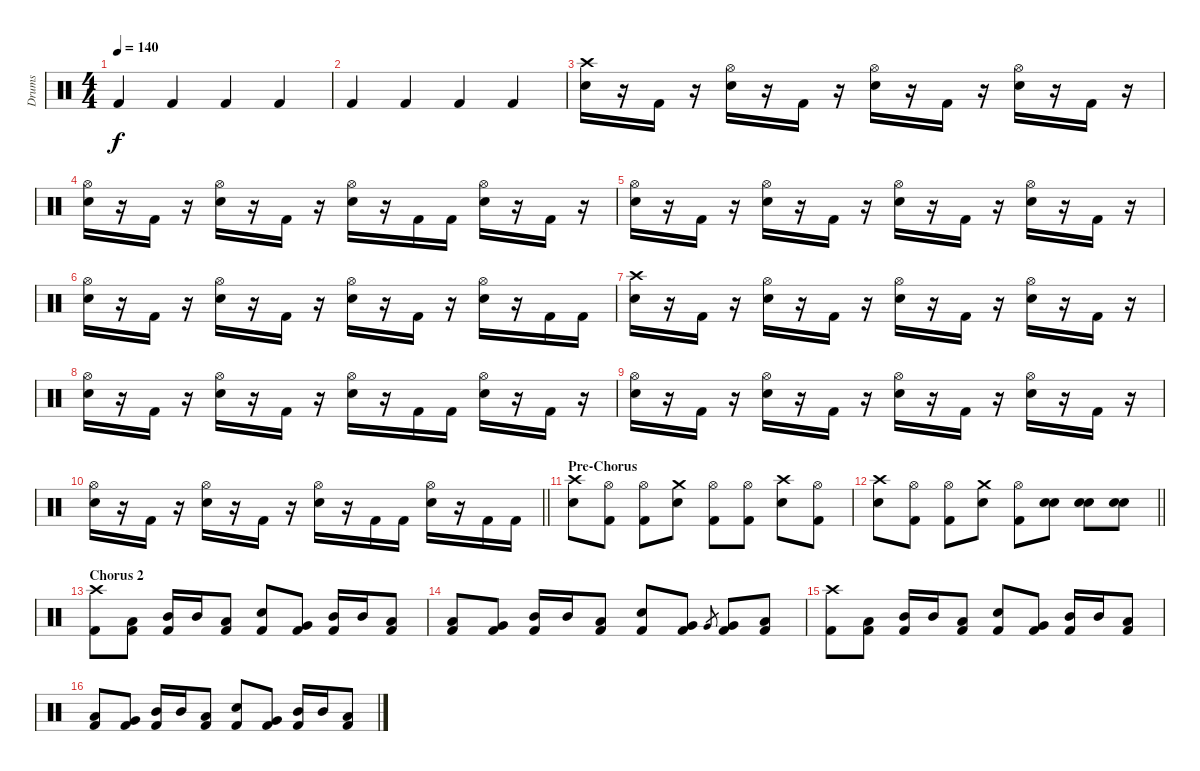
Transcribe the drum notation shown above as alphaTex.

\track ("Drums" "Drums") {instrument percussion}
\staff {score}
\articulation defaults
\ts (4 4)
\tempo 140
\clef neutral
\ks c "Kick (hit) 2".4{dy f} "Kick (hit) 2".4 "Kick (hit) 2".4 "Kick (hit) 2".4
|
"Kick (hit) 2".4 "Kick (hit) 2".4 "Kick (hit) 2".4 "Kick (hit) 2".4 |
("Crash high (hit)" "Snare (hit) 2").16 r.16 "Kick (hit) 2".16 r.16 ("Hi-Hat (open)" "Snare (hit) 2").16 r.16 "Kick (hit) 2".16 r.16 ("Hi-Hat (open)" "Snare (hit) 2").16 r.16 "Kick (hit) 2".16 r.16 ("Hi-Hat (open)" "Snare (hit) 2").16 r.16 "Kick (hit) 2".16 r.16 |
("Hi-Hat (open)" "Snare (hit) 2").16 r.16 "Kick (hit) 2".16 r.16 ("Hi-Hat (open)" "Snare (hit) 2").16 r.16 "Kick (hit) 2".16 r.16 ("Hi-Hat (open)" "Snare (hit) 2").16 r.16 "Kick (hit) 2".16 "Kick (hit) 2".16 ("Hi-Hat (open)" "Snare (hit) 2").16 r.16 "Kick (hit) 2".16 r.16 |
("Hi-Hat (open)" "Snare (hit) 2").16 r.16 "Kick (hit) 2".16 r.16 ("Hi-Hat (open)" "Snare (hit) 2").16 r.16 "Kick (hit) 2".16 r.16 ("Hi-Hat (open)" "Snare (hit) 2").16 r.16 "Kick (hit) 2".16 r.16 ("Hi-Hat (open)" "Snare (hit) 2").16 r.16 "Kick (hit) 2".16 r.16 |
("Hi-Hat (open)" "Snare (hit) 2").16 r.16 "Kick (hit) 2".16 r.16 ("Hi-Hat (open)" "Snare (hit) 2").16 r.16 "Kick (hit) 2".16 r.16 ("Hi-Hat (open)" "Snare (hit) 2").16 r.16 "Kick (hit) 2".16 r.16 ("Hi-Hat (open)" "Snare (hit) 2").16 r.16 "Kick (hit) 2".16 "Kick (hit) 2".16 |
("Crash high (hit)" "Snare (hit) 2").16 r.16 "Kick (hit) 2".16 r.16 ("Hi-Hat (open)" "Snare (hit) 2").16 r.16 "Kick (hit) 2".16 r.16 ("Hi-Hat (open)" "Snare (hit) 2").16 r.16 "Kick (hit) 2".16 r.16 ("Hi-Hat (open)" "Snare (hit) 2").16 r.16 "Kick (hit) 2".16 r.16 |
("Hi-Hat (open)" "Snare (hit) 2").16 r.16 "Kick (hit) 2".16 r.16 ("Hi-Hat (open)" "Snare (hit) 2").16 r.16 "Kick (hit) 2".16 r.16 ("Hi-Hat (open)" "Snare (hit) 2").16 r.16 "Kick (hit) 2".16 "Kick (hit) 2".16 ("Hi-Hat (open)" "Snare (hit) 2").16 r.16 "Kick (hit) 2".16 r.16 |
("Hi-Hat (open)" "Snare (hit) 2").16 r.16 "Kick (hit) 2".16 r.16 ("Hi-Hat (open)" "Snare (hit) 2").16 r.16 "Kick (hit) 2".16 r.16 ("Hi-Hat (open)" "Snare (hit) 2").16 r.16 "Kick (hit) 2".16 r.16 ("Hi-Hat (open)" "Snare (hit) 2").16 r.16 "Kick (hit) 2".16 r.16 |
\barLineRight lightlight
("Hi-Hat (open)" "Snare (hit) 2").16 r.16 "Kick (hit) 2".16 r.16 ("Hi-Hat (open)" "Snare (hit) 2").16 r.16 "Kick (hit) 2".16 r.16 ("Hi-Hat (open)" "Snare (hit) 2").16 r.16 "Kick (hit) 2".16 "Kick (hit) 2".16 ("Hi-Hat (open)" "Snare (hit) 2").16 r.16 "Kick (hit) 2".16 "Kick (hit) 2".16 |
\section ("" "Pre-Chorus")
("Crash high (hit)" "Snare (hit) 2").8 ("Hi-Hat (open)" "Kick (hit) 2").8 ("Hi-Hat (open)" "Kick (hit) 2").8 ("Crash medium (hit)" "Snare (hit) 2").8 ("Hi-Hat (open)" "Kick (hit) 2").8 ("Hi-Hat (open)" "Kick (hit) 2").8 ("Crash high (hit)" "Snare (hit) 2").8 ("Hi-Hat (open)" "Kick (hit) 2").8 |
\barLineRight lightlight
("Crash high (hit)" "Snare (hit) 2").8 ("Hi-Hat (open)" "Kick (hit) 2").8 ("Hi-Hat (open)" "Kick (hit) 2").8 ("Crash medium (hit)" "Snare (hit) 2").8 ("Hi-Hat (open)" "Kick (hit) 2").8 ("Snare (hit) 2" "Snare (hit) 2").8 ("Snare (hit) 2" "Snare (hit) 2").8 ("Snare (hit) 2" "Snare (hit) 2").8 |
\section ("" "Chorus 2")
("Crash high (hit)" "Kick (hit) 2").8 ("Low Floor Tom (hit)" "Kick (hit) 2").8 ("Mid Tom (hit)" "Kick (hit) 2").16 "Mid Tom (hit)".16 ("Low Tom (hit)" "Kick (hit) 2").8 ("Snare (hit) 2" "Kick (hit) 2").8 ("Very Low Tom (hit)" "Kick (hit) 2").8 ("Mid Tom (hit)" "Kick (hit) 2").16 "Mid Tom (hit)".16 ("Low Tom (hit)" "Kick (hit) 2").8 |
("Low Floor Tom (hit)" "Kick (hit) 2").8 ("Very Low Tom (hit)" "Kick (hit) 2").8 ("Mid Tom (hit)" "Kick (hit) 2").16 "Mid Tom (hit)".16 ("Low Tom (hit)" "Kick (hit) 2").8 ("Snare (hit) 2" "Kick (hit) 2").8 ("Very Low Tom (hit)" "Kick (hit) 2").8 "Very Low Tom (hit)".8{gr} ("Very Low Tom (hit)" "Kick (hit) 2").8 ("Low Tom (hit)" "Kick (hit) 2").8 |
("Crash high (hit)" "Kick (hit) 2").8 ("Low Floor Tom (hit)" "Kick (hit) 2").8 ("Mid Tom (hit)" "Kick (hit) 2").16 "Mid Tom (hit)".16 ("Low Tom (hit)" "Kick (hit) 2").8 ("Snare (hit) 2" "Kick (hit) 2").8 ("Very Low Tom (hit)" "Kick (hit) 2").8 ("Mid Tom (hit)" "Kick (hit) 2").16 "Mid Tom (hit)".16 ("Low Tom (hit)" "Kick (hit) 2").8 |
("Low Floor Tom (hit)" "Kick (hit) 2").8 ("Very Low Tom (hit)" "Kick (hit) 2").8 ("Mid Tom (hit)" "Kick (hit) 2").16 "Mid Tom (hit)".16 ("Low Tom (hit)" "Kick (hit) 2").8 ("Snare (hit) 2" "Kick (hit) 2").8 ("Very Low Tom (hit)" "Kick (hit) 2").8 ("Mid Tom (hit)" "Kick (hit) 2").16 "Mid Tom (hit)".16 ("Low Tom (hit)" "Kick (hit) 2").8
